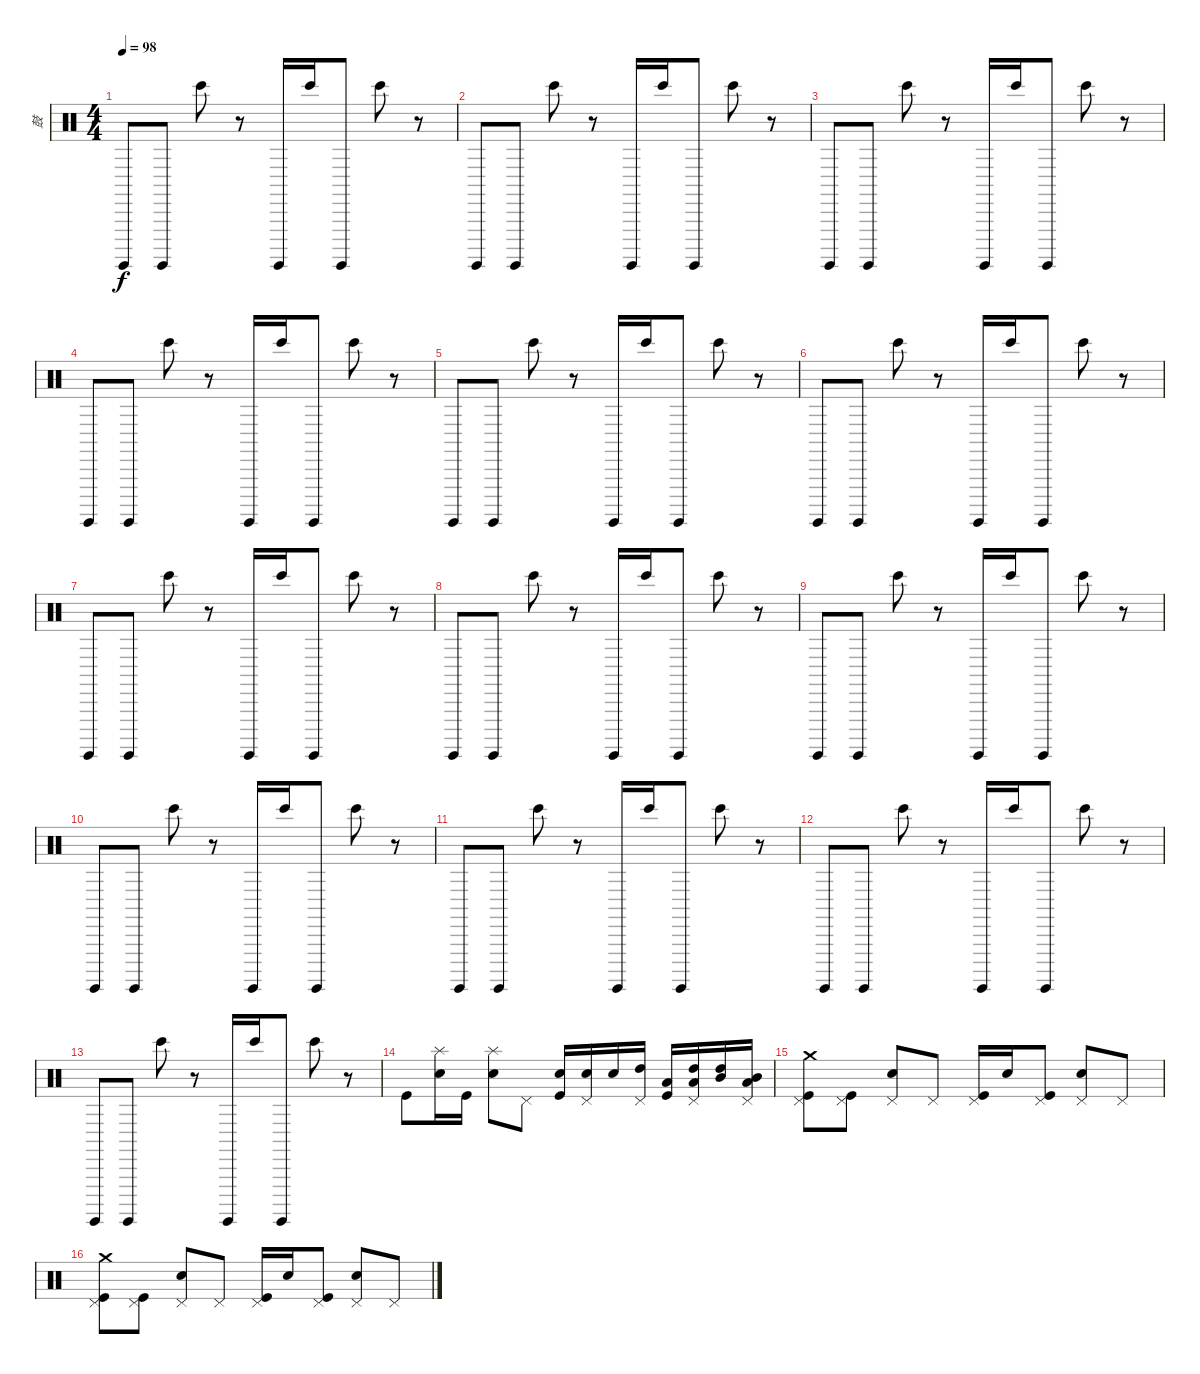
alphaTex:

\track ("鼓" "鼓") {instrument percussion}
\staff {score}
\articulation defaults
\ts (4 4)
\tempo 98
\clef neutral
\ks c "Surdo (hit)".8{dy f} "Surdo (hit)".8 "Bongo High (hit)".8
r.8 "Surdo (hit)".16 "Bongo High (hit)".16 "Surdo (hit)".8 "Bongo High (hit)".8 r.8 |
"Surdo (hit)".8 "Surdo (hit)".8 "Bongo High (hit)".8 r.8 "Surdo (hit)".16 "Bongo High (hit)".16 "Surdo (hit)".8 "Bongo High (hit)".8 r.8 |
"Surdo (hit)".8 "Surdo (hit)".8 "Bongo High (hit)".8 r.8 "Surdo (hit)".16 "Bongo High (hit)".16 "Surdo (hit)".8 "Bongo High (hit)".8 r.8 |
"Surdo (hit)".8 "Surdo (hit)".8 "Bongo High (hit)".8 r.8 "Surdo (hit)".16 "Bongo High (hit)".16 "Surdo (hit)".8 "Bongo High (hit)".8 r.8 |
"Surdo (hit)".8 "Surdo (hit)".8 "Bongo High (hit)".8 r.8 "Surdo (hit)".16 "Bongo High (hit)".16 "Surdo (hit)".8 "Bongo High (hit)".8 r.8 |
"Surdo (hit)".8 "Surdo (hit)".8 "Bongo High (hit)".8 r.8 "Surdo (hit)".16 "Bongo High (hit)".16 "Surdo (hit)".8 "Bongo High (hit)".8 r.8 |
"Surdo (hit)".8 "Surdo (hit)".8 "Bongo High (hit)".8 r.8 "Surdo (hit)".16 "Bongo High (hit)".16 "Surdo (hit)".8 "Bongo High (hit)".8 r.8 |
"Surdo (hit)".8 "Surdo (hit)".8 "Bongo High (hit)".8 r.8 "Surdo (hit)".16 "Bongo High (hit)".16 "Surdo (hit)".8 "Bongo High (hit)".8 r.8 |
"Surdo (hit)".8 "Surdo (hit)".8 "Bongo High (hit)".8 r.8 "Surdo (hit)".16 "Bongo High (hit)".16 "Surdo (hit)".8 "Bongo High (hit)".8 r.8 |
"Surdo (hit)".8 "Surdo (hit)".8 "Bongo High (hit)".8 r.8 "Surdo (hit)".16 "Bongo High (hit)".16 "Surdo (hit)".8 "Bongo High (hit)".8 r.8 |
"Surdo (hit)".8 "Surdo (hit)".8 "Bongo High (hit)".8 r.8 "Surdo (hit)".16 "Bongo High (hit)".16 "Surdo (hit)".8 "Bongo High (hit)".8 r.8 |
"Surdo (hit)".8 "Surdo (hit)".8 "Bongo High (hit)".8 r.8 "Surdo (hit)".16 "Bongo High (hit)".16 "Surdo (hit)".8 "Bongo High (hit)".8 r.8 |
"Surdo (hit)".8 "Surdo (hit)".8 "Bongo High (hit)".8 r.8 "Surdo (hit)".16 "Bongo High (hit)".16 "Surdo (hit)".8 "Bongo High (hit)".8 r.8 |
"Kick (hit)".8 ("Splash (hit)" "Electric Snare (hit)").16 "Kick (hit)".16 ("Splash (hit)" "Electric Snare (hit)").8 "Pedal Hi-Hat (hit)".8 ("Electric Snare (hit)" "Kick (hit)").16 ("Pedal Hi-Hat (hit)" "Electric Snare (hit)").16 "Electric Snare (hit)".16 ("Pedal Hi-Hat (hit)" "High Tom (hit)").16 ("Low Tom (hit)" "Kick (hit)").16 ("Pedal Hi-Hat (hit)" "Low Tom (hit)" "High Tom (hit)").16 ("High Tom (hit)" "Mid Tom (hit)").16 ("Pedal Hi-Hat (hit)" "Low Tom (hit)" "Mid Tom (hit)").16 |
("Pedal Hi-Hat (hit)" "Kick (hit)" "Crash medium (hit)").8 ("Pedal Hi-Hat (hit)" "Kick (hit)").8 ("Pedal Hi-Hat (hit)" "Electric Snare (hit)").8 "Pedal Hi-Hat (hit)".8 ("Pedal Hi-Hat (hit)" "Kick (hit)").16 "Electric Snare (hit)".16 ("Pedal Hi-Hat (hit)" "Kick (hit)").8 ("Pedal Hi-Hat (hit)" "Electric Snare (hit)").8 "Pedal Hi-Hat (hit)".8 |
("Pedal Hi-Hat (hit)" "Kick (hit)" "Crash medium (hit)").8 ("Pedal Hi-Hat (hit)" "Kick (hit)").8 ("Pedal Hi-Hat (hit)" "Electric Snare (hit)").8 "Pedal Hi-Hat (hit)".8 ("Pedal Hi-Hat (hit)" "Kick (hit)").16 "Electric Snare (hit)".16 ("Pedal Hi-Hat (hit)" "Kick (hit)").8 ("Pedal Hi-Hat (hit)" "Electric Snare (hit)").8 "Pedal Hi-Hat (hit)".8
